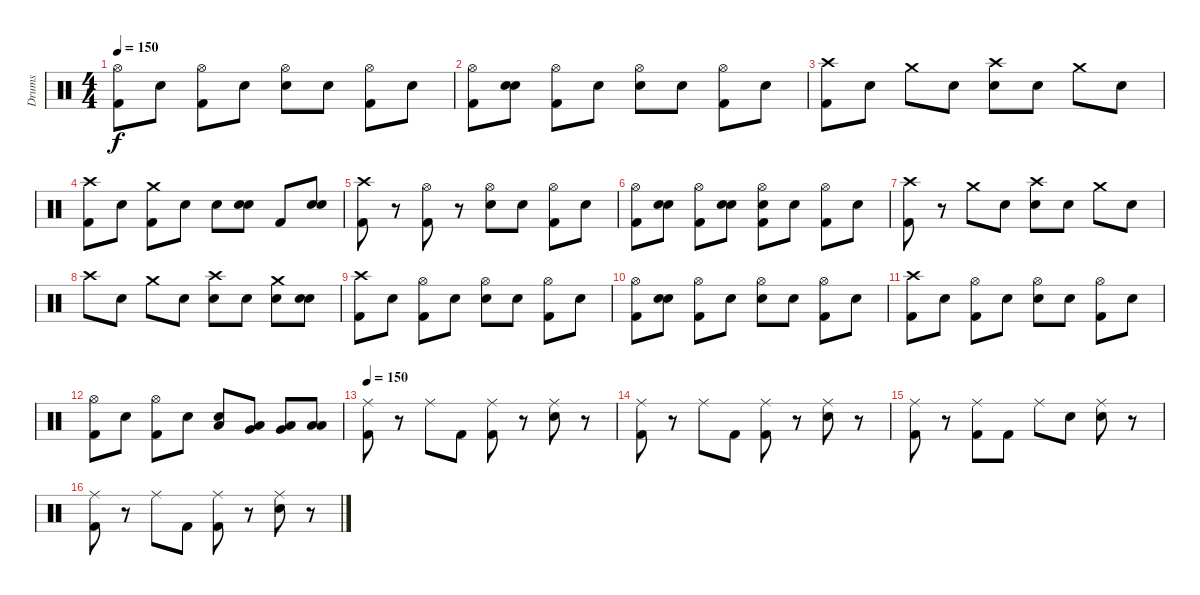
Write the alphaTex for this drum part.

\track ("Drums" "Drums") {instrument percussion}
\staff {score}
\articulation defaults
\ts (4 4)
\tempo 150
\clef neutral
\ks c
("Hi-Hat (open)" "Kick (hit) 2").8{dy f} "Snare (hit)".8 ("Hi-Hat (open)" "Kick (hit) 2").8 "Snare (hit)".8 ("Hi-Hat (open)" "Snare (hit) 2").8 "Snare (hit)".8 ("Hi-Hat (open)" "Kick (hit) 2").8 "Snare (hit)".8 |
("Hi-Hat (open)" "Kick (hit) 2").8 ("Snare (hit)" "Snare (hit) 2").8 ("Hi-Hat (open)" "Kick (hit) 2").8 "Snare (hit)".8 ("Hi-Hat (open)" "Snare (hit) 2").8 "Snare (hit)".8 ("Hi-Hat (open)" "Kick (hit) 2").8 "Snare (hit)".8 |
("Crash high (hit)" "Kick (hit) 2").8 "Snare (hit)".8 "Crash medium (hit)".8 "Snare (hit)".8 ("Crash high (hit)" "Snare (hit) 2").8 "Snare (hit)".8 "Crash medium (hit)".8 "Snare (hit)".8 |
("Crash high (hit)" "Kick (hit) 2").8 "Snare (hit)".8 ("Crash medium (hit)" "Kick (hit) 2").8 "Snare (hit)".8 "Snare (hit) 2".8 ("Snare (hit)" "Snare (hit) 2").8 "Kick (hit) 2".8 ("Snare (hit)" "Snare (hit) 2").8 |
("Crash high (hit)" "Kick (hit) 2").8 r.8 ("Hi-Hat (open)" "Kick (hit) 2").8 r.8 ("Hi-Hat (open)" "Snare (hit) 2").8 "Snare (hit)".8 ("Hi-Hat (open)" "Kick (hit) 2").8 "Snare (hit)".8 |
("Hi-Hat (open)" "Kick (hit) 2").8 ("Snare (hit)" "Snare (hit) 2").8 ("Hi-Hat (open)" "Kick (hit) 2").8 ("Snare (hit)" "Snare (hit)").8 ("Hi-Hat (open)" "Kick (hit) 2" "Snare (hit) 2").8 "Snare (hit)".8 ("Hi-Hat (open)" "Kick (hit) 2").8 "Snare (hit)".8 |
("Crash high (hit)" "Kick (hit) 2").8 r.8 "Crash medium (hit)".8 "Snare (hit)".8 ("Crash high (hit)" "Snare (hit) 2").8 "Snare (hit)".8 "Crash medium (hit)".8 "Snare (hit)".8 |
"Crash high (hit)".8 "Snare (hit)".8 "Crash medium (hit)".8 "Snare (hit)".8 ("Crash high (hit)" "Snare (hit) 2").8 "Snare (hit)".8 ("Crash medium (hit)" "Snare (hit) 2").8 ("Snare (hit)" "Snare (hit) 2").8 |
("Crash high (hit)" "Kick (hit) 2").8 "Snare (hit)".8 ("Hi-Hat (open)" "Kick (hit) 2").8 "Snare (hit)".8 ("Hi-Hat (open)" "Snare (hit) 2").8 "Snare (hit)".8 ("Hi-Hat (open)" "Kick (hit) 2").8 "Snare (hit)".8 |
("Hi-Hat (open)" "Kick (hit) 2").8 ("Snare (hit)" "Snare (hit) 2").8 ("Hi-Hat (open)" "Kick (hit) 2").8 "Snare (hit)".8 ("Hi-Hat (open)" "Snare (hit) 2").8 "Snare (hit)".8 ("Hi-Hat (open)" "Kick (hit) 2").8 "Snare (hit)".8 |
("Crash high (hit)" "Kick (hit) 2").8 "Snare (hit)".8 ("Hi-Hat (open)" "Kick (hit) 2").8 "Snare (hit)".8 ("Hi-Hat (open)" "Snare (hit) 2").8 "Snare (hit)".8 ("Hi-Hat (open)" "Kick (hit) 2").8 "Snare (hit)".8 |
("Hi-Hat (open)" "Kick (hit) 2").8 "Snare (hit)".8 ("Hi-Hat (open)" "Kick (hit) 2").8 "Snare (hit)".8 ("Snare (hit) 2" "Low Tom (hit)").8 ("Very Low Tom (hit)" "Low Tom (hit)").8 ("Low Tom (hit)" "Very Low Tom (hit)").8 ("Low Tom (hit)" "Low Tom (hit)").8 |
\tempo 150
("Ride (middle)" "Kick (hit) 2").8 r.8 "Ride (middle)".8 "Kick (hit) 2".8 ("Ride (middle)" "Kick (hit) 2").8 r.8 ("Ride (middle)" "Electric Snare (hit)").8 r.8 |
("Ride (middle)" "Kick (hit) 2").8 r.8 "Ride (middle)".8 "Kick (hit) 2".8 ("Ride (middle)" "Kick (hit) 2").8 r.8 ("Ride (middle)" "Electric Snare (hit)").8 r.8 |
("Ride (middle)" "Kick (hit) 2").8 r.8 ("Ride (middle)" "Kick (hit) 2").8 "Kick (hit) 2".8 "Ride (middle)".8 "Snare (hit)".8 ("Ride (middle)" "Electric Snare (hit)").8 r.8 |
("Ride (middle)" "Kick (hit) 2").8 r.8 "Ride (middle)".8 "Kick (hit) 2".8 ("Ride (middle)" "Kick (hit) 2").8 r.8 ("Ride (middle)" "Electric Snare (hit)").8 r.8
